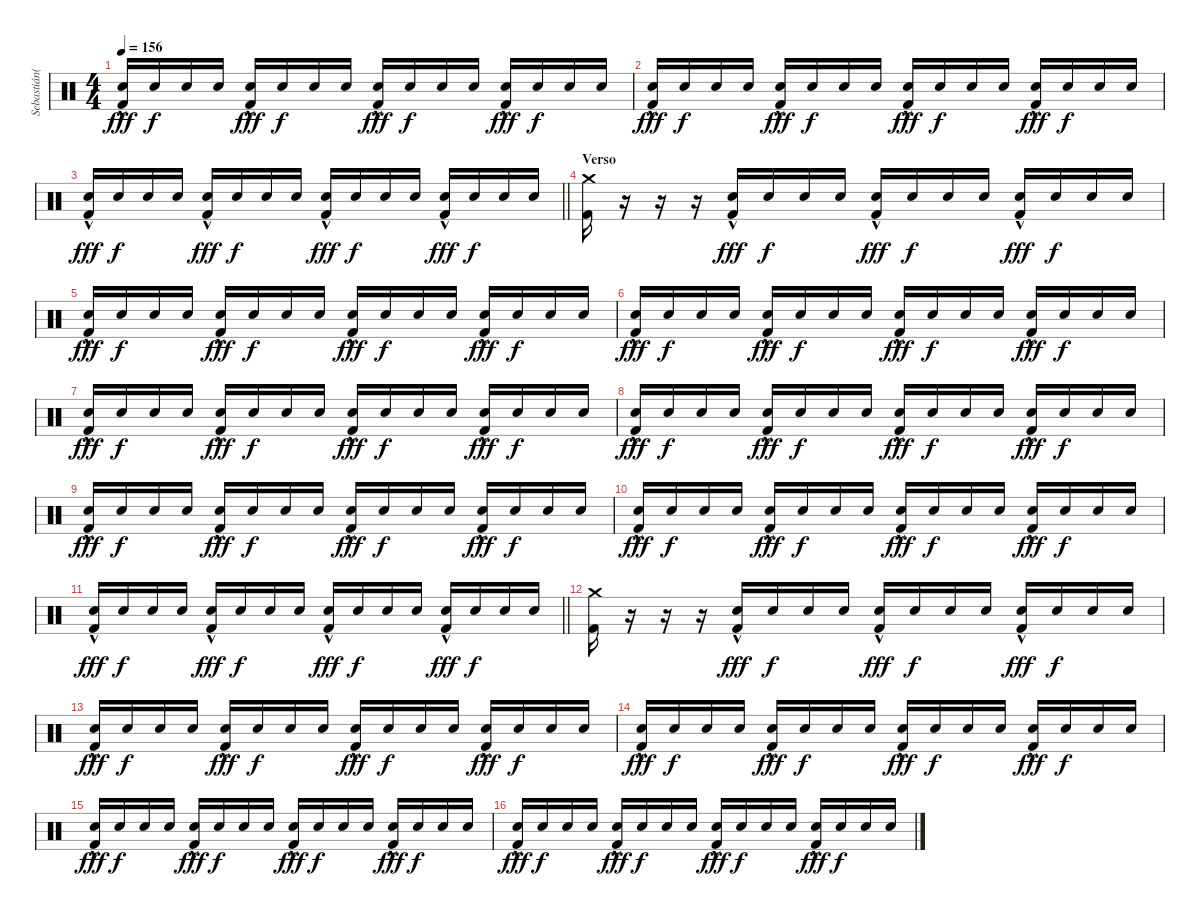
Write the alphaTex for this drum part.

\track ("Sebastián(Percusión)" "Sebastián(") {instrument percussion}
\staff {score}
\articulation defaults
\ts (4 4)
\tempo 156
\clef neutral
\ks c
("Electric Snare (hit)"{hac} "Kick (hit) 2").16{dy fff} "Electric Snare (hit)".16{dy f} "Electric Snare (hit)".16 "Electric Snare (hit)".16 ("Electric Snare (hit)"{hac} "Kick (hit) 2").16{dy fff} "Electric Snare (hit)".16{dy f} "Electric Snare (hit)".16 "Electric Snare (hit)".16 ("Electric Snare (hit)"{hac} "Kick (hit) 2").16{dy fff} "Electric Snare (hit)".16{dy f} "Electric Snare (hit)".16 "Electric Snare (hit)".16 ("Electric Snare (hit)"{hac} "Kick (hit) 2").16{dy fff} "Electric Snare (hit)".16{dy f} "Electric Snare (hit)".16 "Electric Snare (hit)".16 |
("Electric Snare (hit)"{hac} "Kick (hit) 2").16{dy fff} "Electric Snare (hit)".16{dy f} "Electric Snare (hit)".16 "Electric Snare (hit)".16 ("Electric Snare (hit)"{hac} "Kick (hit) 2").16{dy fff} "Electric Snare (hit)".16{dy f} "Electric Snare (hit)".16 "Electric Snare (hit)".16 ("Electric Snare (hit)"{hac} "Kick (hit) 2").16{dy fff} "Electric Snare (hit)".16{dy f} "Electric Snare (hit)".16 "Electric Snare (hit)".16 ("Electric Snare (hit)"{hac} "Kick (hit) 2").16{dy fff} "Electric Snare (hit)".16{dy f} "Electric Snare (hit)".16 "Electric Snare (hit)".16 |
\barLineRight lightlight
("Electric Snare (hit)"{hac} "Kick (hit) 2").16{dy fff} "Electric Snare (hit)".16{dy f} "Electric Snare (hit)".16 "Electric Snare (hit)".16 ("Electric Snare (hit)"{hac} "Kick (hit) 2").16{dy fff} "Electric Snare (hit)".16{dy f} "Electric Snare (hit)".16 "Electric Snare (hit)".16 ("Electric Snare (hit)"{hac} "Kick (hit) 2").16{dy fff} "Electric Snare (hit)".16{dy f} "Electric Snare (hit)".16 "Electric Snare (hit)".16 ("Electric Snare (hit)"{hac} "Kick (hit) 2").16{dy fff} "Electric Snare (hit)".16{dy f} "Electric Snare (hit)".16 "Electric Snare (hit)".16 |
\section ("" "Verso")
("Crash medium (hit)" "Kick (hit) 2").16 r.16 r.16 r.16 ("Electric Snare (hit)"{hac} "Kick (hit) 2").16{dy fff} "Electric Snare (hit)".16{dy f} "Electric Snare (hit)".16 "Electric Snare (hit)".16 ("Electric Snare (hit)"{hac} "Kick (hit) 2").16{dy fff} "Electric Snare (hit)".16{dy f} "Electric Snare (hit)".16 "Electric Snare (hit)".16 ("Electric Snare (hit)"{hac} "Kick (hit) 2").16{dy fff} "Electric Snare (hit)".16{dy f} "Electric Snare (hit)".16 "Electric Snare (hit)".16 |
("Electric Snare (hit)"{hac} "Kick (hit) 2").16{dy fff} "Electric Snare (hit)".16{dy f} "Electric Snare (hit)".16 "Electric Snare (hit)".16 ("Electric Snare (hit)"{hac} "Kick (hit) 2").16{dy fff} "Electric Snare (hit)".16{dy f} "Electric Snare (hit)".16 "Electric Snare (hit)".16 ("Electric Snare (hit)"{hac} "Kick (hit) 2").16{dy fff} "Electric Snare (hit)".16{dy f} "Electric Snare (hit)".16 "Electric Snare (hit)".16 ("Electric Snare (hit)"{hac} "Kick (hit) 2").16{dy fff} "Electric Snare (hit)".16{dy f} "Electric Snare (hit)".16 "Electric Snare (hit)".16 |
("Electric Snare (hit)"{hac} "Kick (hit) 2").16{dy fff} "Electric Snare (hit)".16{dy f} "Electric Snare (hit)".16 "Electric Snare (hit)".16 ("Electric Snare (hit)"{hac} "Kick (hit) 2").16{dy fff} "Electric Snare (hit)".16{dy f} "Electric Snare (hit)".16 "Electric Snare (hit)".16 ("Electric Snare (hit)"{hac} "Kick (hit) 2").16{dy fff} "Electric Snare (hit)".16{dy f} "Electric Snare (hit)".16 "Electric Snare (hit)".16 ("Electric Snare (hit)"{hac} "Kick (hit) 2").16{dy fff} "Electric Snare (hit)".16{dy f} "Electric Snare (hit)".16 "Electric Snare (hit)".16 |
("Electric Snare (hit)"{hac} "Kick (hit) 2").16{dy fff} "Electric Snare (hit)".16{dy f} "Electric Snare (hit)".16 "Electric Snare (hit)".16 ("Electric Snare (hit)"{hac} "Kick (hit) 2").16{dy fff} "Electric Snare (hit)".16{dy f} "Electric Snare (hit)".16 "Electric Snare (hit)".16 ("Electric Snare (hit)"{hac} "Kick (hit) 2").16{dy fff} "Electric Snare (hit)".16{dy f} "Electric Snare (hit)".16 "Electric Snare (hit)".16 ("Electric Snare (hit)"{hac} "Kick (hit) 2").16{dy fff} "Electric Snare (hit)".16{dy f} "Electric Snare (hit)".16 "Electric Snare (hit)".16 |
("Electric Snare (hit)"{hac} "Kick (hit) 2").16{dy fff} "Electric Snare (hit)".16{dy f} "Electric Snare (hit)".16 "Electric Snare (hit)".16 ("Electric Snare (hit)"{hac} "Kick (hit) 2").16{dy fff} "Electric Snare (hit)".16{dy f} "Electric Snare (hit)".16 "Electric Snare (hit)".16 ("Electric Snare (hit)"{hac} "Kick (hit) 2").16{dy fff} "Electric Snare (hit)".16{dy f} "Electric Snare (hit)".16 "Electric Snare (hit)".16 ("Electric Snare (hit)"{hac} "Kick (hit) 2").16{dy fff} "Electric Snare (hit)".16{dy f} "Electric Snare (hit)".16 "Electric Snare (hit)".16 |
("Electric Snare (hit)"{hac} "Kick (hit) 2").16{dy fff} "Electric Snare (hit)".16{dy f} "Electric Snare (hit)".16 "Electric Snare (hit)".16 ("Electric Snare (hit)"{hac} "Kick (hit) 2").16{dy fff} "Electric Snare (hit)".16{dy f} "Electric Snare (hit)".16 "Electric Snare (hit)".16 ("Electric Snare (hit)"{hac} "Kick (hit) 2").16{dy fff} "Electric Snare (hit)".16{dy f} "Electric Snare (hit)".16 "Electric Snare (hit)".16 ("Electric Snare (hit)"{hac} "Kick (hit) 2").16{dy fff} "Electric Snare (hit)".16{dy f} "Electric Snare (hit)".16 "Electric Snare (hit)".16 |
("Electric Snare (hit)"{hac} "Kick (hit) 2").16{dy fff} "Electric Snare (hit)".16{dy f} "Electric Snare (hit)".16 "Electric Snare (hit)".16 ("Electric Snare (hit)"{hac} "Kick (hit) 2").16{dy fff} "Electric Snare (hit)".16{dy f} "Electric Snare (hit)".16 "Electric Snare (hit)".16 ("Electric Snare (hit)"{hac} "Kick (hit) 2").16{dy fff} "Electric Snare (hit)".16{dy f} "Electric Snare (hit)".16 "Electric Snare (hit)".16 ("Electric Snare (hit)"{hac} "Kick (hit) 2").16{dy fff} "Electric Snare (hit)".16{dy f} "Electric Snare (hit)".16 "Electric Snare (hit)".16 |
\barLineRight lightlight
("Electric Snare (hit)"{hac} "Kick (hit) 2").16{dy fff} "Electric Snare (hit)".16{dy f} "Electric Snare (hit)".16 "Electric Snare (hit)".16 ("Electric Snare (hit)"{hac} "Kick (hit) 2").16{dy fff} "Electric Snare (hit)".16{dy f} "Electric Snare (hit)".16 "Electric Snare (hit)".16 ("Electric Snare (hit)"{hac} "Kick (hit) 2").16{dy fff} "Electric Snare (hit)".16{dy f} "Electric Snare (hit)".16 "Electric Snare (hit)".16 ("Electric Snare (hit)"{hac} "Kick (hit) 2").16{dy fff} "Electric Snare (hit)".16{dy f} "Electric Snare (hit)".16 "Electric Snare (hit)".16 |
\section ("" "")
("Crash medium (hit)" "Kick (hit) 2").16 r.16 r.16 r.16 ("Electric Snare (hit)"{hac} "Kick (hit) 2").16{dy fff} "Electric Snare (hit)".16{dy f} "Electric Snare (hit)".16 "Electric Snare (hit)".16 ("Electric Snare (hit)"{hac} "Kick (hit) 2").16{dy fff} "Electric Snare (hit)".16{dy f} "Electric Snare (hit)".16 "Electric Snare (hit)".16 ("Electric Snare (hit)"{hac} "Kick (hit) 2").16{dy fff} "Electric Snare (hit)".16{dy f} "Electric Snare (hit)".16 "Electric Snare (hit)".16 |
("Electric Snare (hit)"{hac} "Kick (hit) 2").16{dy fff} "Electric Snare (hit)".16{dy f} "Electric Snare (hit)".16 "Electric Snare (hit)".16 ("Electric Snare (hit)"{hac} "Kick (hit) 2").16{dy fff} "Electric Snare (hit)".16{dy f} "Electric Snare (hit)".16 "Electric Snare (hit)".16 ("Electric Snare (hit)"{hac} "Kick (hit) 2").16{dy fff} "Electric Snare (hit)".16{dy f} "Electric Snare (hit)".16 "Electric Snare (hit)".16 ("Electric Snare (hit)"{hac} "Kick (hit) 2").16{dy fff} "Electric Snare (hit)".16{dy f} "Electric Snare (hit)".16 "Electric Snare (hit)".16 |
("Electric Snare (hit)"{hac} "Kick (hit) 2").16{dy fff} "Electric Snare (hit)".16{dy f} "Electric Snare (hit)".16 "Electric Snare (hit)".16 ("Electric Snare (hit)"{hac} "Kick (hit) 2").16{dy fff} "Electric Snare (hit)".16{dy f} "Electric Snare (hit)".16 "Electric Snare (hit)".16 ("Electric Snare (hit)"{hac} "Kick (hit) 2").16{dy fff} "Electric Snare (hit)".16{dy f} "Electric Snare (hit)".16 "Electric Snare (hit)".16 ("Electric Snare (hit)"{hac} "Kick (hit) 2").16{dy fff} "Electric Snare (hit)".16{dy f} "Electric Snare (hit)".16 "Electric Snare (hit)".16 |
("Electric Snare (hit)"{hac} "Kick (hit) 2").16{dy fff} "Electric Snare (hit)".16{dy f} "Electric Snare (hit)".16 "Electric Snare (hit)".16 ("Electric Snare (hit)"{hac} "Kick (hit) 2").16{dy fff} "Electric Snare (hit)".16{dy f} "Electric Snare (hit)".16 "Electric Snare (hit)".16 ("Electric Snare (hit)"{hac} "Kick (hit) 2").16{dy fff} "Electric Snare (hit)".16{dy f} "Electric Snare (hit)".16 "Electric Snare (hit)".16 ("Electric Snare (hit)"{hac} "Kick (hit) 2").16{dy fff} "Electric Snare (hit)".16{dy f} "Electric Snare (hit)".16 "Electric Snare (hit)".16 |
("Electric Snare (hit)"{hac} "Kick (hit) 2").16{dy fff} "Electric Snare (hit)".16{dy f} "Electric Snare (hit)".16 "Electric Snare (hit)".16 ("Electric Snare (hit)"{hac} "Kick (hit) 2").16{dy fff} "Electric Snare (hit)".16{dy f} "Electric Snare (hit)".16 "Electric Snare (hit)".16 ("Electric Snare (hit)"{hac} "Kick (hit) 2").16{dy fff} "Electric Snare (hit)".16{dy f} "Electric Snare (hit)".16 "Electric Snare (hit)".16 ("Electric Snare (hit)"{hac} "Kick (hit) 2").16{dy fff} "Electric Snare (hit)".16{dy f} "Electric Snare (hit)".16 "Electric Snare (hit)".16
